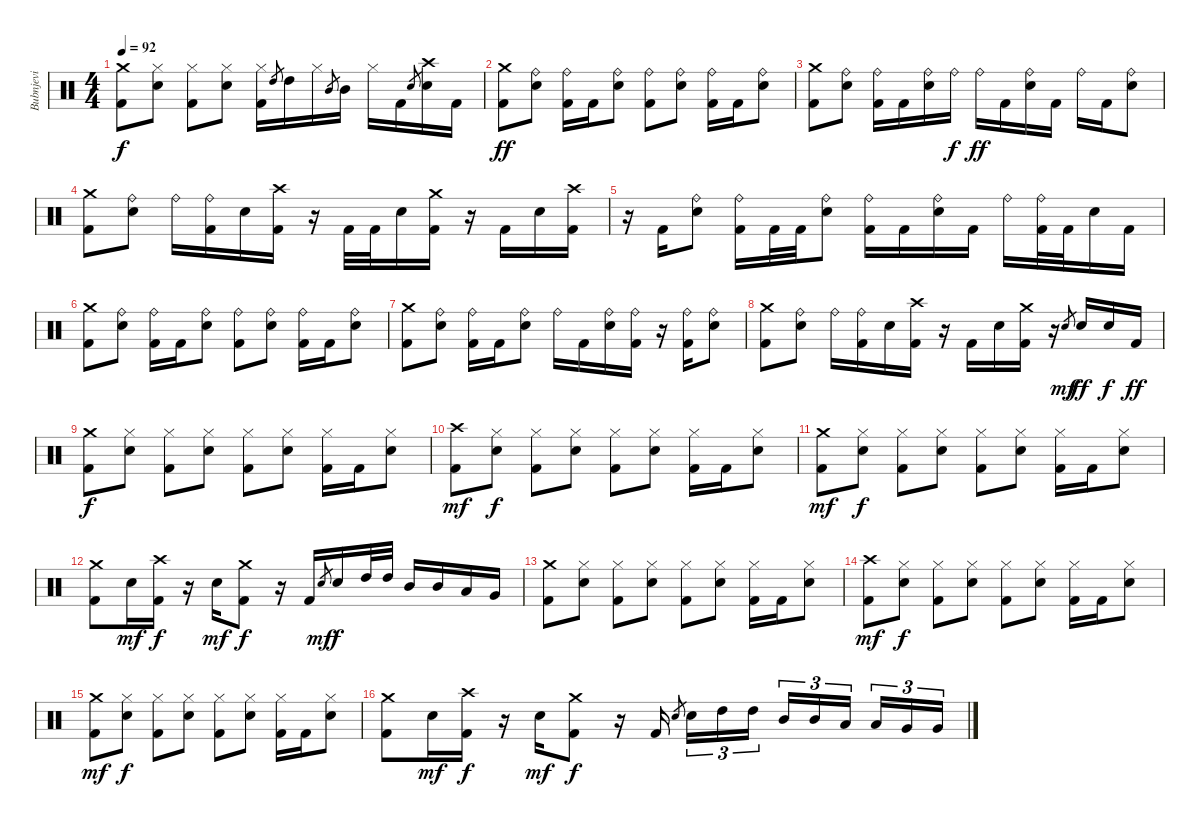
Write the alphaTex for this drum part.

\track ("Bubnjevi" "Bubnjevi") {instrument percussion}
\staff {score}
\articulation defaults
\ts (4 4)
\tempo 92
\clef neutral
\ks c
("Crash medium (hit)" "Kick (hit) 2").8{dy f} ("Hi-Hat (closed)" "Electric Snare (hit)").8 ("Hi-Hat (closed)" "Kick (hit) 2").8 ("Hi-Hat (closed)" "Electric Snare (hit)").8 ("Hi-Hat (closed)" "Kick (hit) 2").16 "High Tom (hit)".8{gr} "High Tom (hit)".16 "Hi-Hat (closed)".16 "Mid Tom (hit)".8{gr} "Mid Tom (hit)".16 "Hi-Hat (closed)".16 "Kick (hit) 2".16 "Electric Snare (hit)".8{gr} ("Crash high (hit)" "Electric Snare (hit)").16 "Kick (hit) 2".16 |
("Crash medium (hit)" "Kick (hit) 2").8{dy ff} ("Ride (bell)" "Electric Snare (hit)").8 ("Ride (bell)" "Kick (hit) 2").16 "Kick (hit) 2".16 ("Ride (bell)" "Electric Snare (hit)").8 ("Ride (bell)" "Kick (hit) 2").8 ("Ride (bell)" "Electric Snare (hit)").8 ("Ride (bell)" "Kick (hit) 2").16 "Kick (hit) 2".16 ("Ride (bell)" "Electric Snare (hit)").8 |
("Crash medium (hit)" "Kick (hit) 2").8 ("Ride (bell)" "Electric Snare (hit)").8 ("Ride (bell)" "Kick (hit) 2").16 "Kick (hit) 2".16 ("Ride (bell)" "Electric Snare (hit)").16 "Ride (bell)".16{dy f} "Ride (bell)".16{dy ff} "Kick (hit) 2".16 ("Ride (bell)" "Electric Snare (hit)").16 "Kick (hit) 2".16 "Ride (bell)".16 "Kick (hit) 2".16 ("Ride (bell)" "Electric Snare (hit)").8 |
("Crash medium (hit)" "Kick (hit) 2").8 ("Ride (bell)" "Electric Snare (hit)").8 "Ride (bell)".16 ("Ride (bell)" "Kick (hit) 2").16 "Electric Snare (hit)".16 ("Crash high (hit)" "Kick (hit) 2").16 r.16 "Kick (hit) 2".32 "Kick (hit) 2".32 "Electric Snare (hit)".16 ("Crash medium (hit)" "Kick (hit) 2").16 r.16 "Kick (hit) 2".16 "Electric Snare (hit)".16 ("Crash high (hit)" "Kick (hit) 2").16 |
r.16 "Kick (hit) 2".16 ("Ride (bell)" "Electric Snare (hit)").8 ("Ride (bell)" "Kick (hit) 2").16 "Kick (hit) 2".32 "Kick (hit) 2".32 ("Ride (bell)" "Electric Snare (hit)").8 ("Ride (bell)" "Kick (hit) 2").16 "Kick (hit) 2".16 ("Ride (bell)" "Electric Snare (hit)").16 "Kick (hit) 2".16 "Ride (bell)".16 ("Ride (bell)" "Kick (hit) 2").32 "Kick (hit) 2".32 "Electric Snare (hit)".16 "Kick (hit) 2".16 |
("Crash medium (hit)" "Kick (hit) 2").8 ("Ride (bell)" "Electric Snare (hit)").8 ("Ride (bell)" "Kick (hit) 2").16 "Kick (hit) 2".16 ("Ride (bell)" "Electric Snare (hit)").8 ("Ride (bell)" "Kick (hit) 2").8 ("Ride (bell)" "Electric Snare (hit)").8 ("Ride (bell)" "Kick (hit) 2").16 "Kick (hit) 2".16 ("Ride (bell)" "Electric Snare (hit)").8 |
("Crash medium (hit)" "Kick (hit) 2").8 ("Ride (bell)" "Electric Snare (hit)").8 ("Ride (bell)" "Kick (hit) 2").16 "Kick (hit) 2".16 ("Ride (bell)" "Electric Snare (hit)").8 "Ride (bell)".16 "Kick (hit) 2".16 ("Ride (bell)" "Electric Snare (hit)").16 ("Ride (bell)" "Kick (hit) 2").16 r.16 ("Ride (bell)" "Kick (hit) 2").16 ("Ride (bell)" "Electric Snare (hit)").8 |
("Crash medium (hit)" "Kick (hit) 2").8 ("Ride (bell)" "Electric Snare (hit)").8 "Ride (bell)".16 ("Ride (bell)" "Kick (hit) 2").16 "Electric Snare (hit)".16 ("Crash high (hit)" "Kick (hit) 2").16 r.16 "Kick (hit) 2".16 "Electric Snare (hit)".16 ("Crash medium (hit)" "Kick (hit) 2").16 r.16 "Electric Snare (hit)".8{gr dy mf} "Electric Snare (hit)".16{dy ff} "Electric Snare (hit)".16{dy f} "Kick (hit) 2".16{dy ff} |
("Crash medium (hit)" "Kick (hit) 2").8{dy f} ("Hi-Hat (closed)" "Electric Snare (hit)").8 ("Hi-Hat (closed)" "Kick (hit) 2").8 ("Hi-Hat (closed)" "Electric Snare (hit)").8 ("Hi-Hat (closed)" "Kick (hit) 2").8 ("Hi-Hat (closed)" "Electric Snare (hit)").8 ("Hi-Hat (closed)" "Kick (hit) 2").16 "Kick (hit) 2".16 ("Hi-Hat (closed)" "Electric Snare (hit)").8 |
("Crash high (hit)" "Kick (hit) 2").8{dy mf} ("Hi-Hat (closed)" "Electric Snare (hit)").8{dy f} ("Hi-Hat (closed)" "Kick (hit) 2").8 ("Hi-Hat (closed)" "Electric Snare (hit)").8 ("Hi-Hat (closed)" "Kick (hit) 2").8 ("Hi-Hat (closed)" "Electric Snare (hit)").8 ("Hi-Hat (closed)" "Kick (hit) 2").16 "Kick (hit) 2".16 ("Hi-Hat (closed)" "Electric Snare (hit)").8 |
("Crash medium (hit)" "Kick (hit) 2").8{dy mf} ("Hi-Hat (closed)" "Electric Snare (hit)").8{dy f} ("Hi-Hat (closed)" "Kick (hit) 2").8 ("Hi-Hat (closed)" "Electric Snare (hit)").8 ("Hi-Hat (closed)" "Kick (hit) 2").8 ("Hi-Hat (closed)" "Electric Snare (hit)").8 ("Hi-Hat (closed)" "Kick (hit) 2").16 "Kick (hit) 2".16 ("Hi-Hat (closed)" "Electric Snare (hit)").8 |
("Crash medium (hit)" "Kick (hit) 2").8 "Electric Snare (hit)".16{dy mf} ("Crash high (hit)" "Kick (hit) 2").16{dy f} r.16 "Electric Snare (hit)".16{dy mf} ("Crash medium (hit)" "Kick (hit) 2").8{dy f} r.16 "Kick (hit) 2".16 "Electric Snare (hit)".8{gr dy mf} "Electric Snare (hit)".16{dy f} "High Tom (hit)".32 "High Tom (hit)".32 "Mid Tom (hit)".16 "Mid Tom (hit)".16 "Low Tom (hit)".16 "Very Low Tom (hit)".16 |
("Crash medium (hit)" "Kick (hit) 2").8 ("Hi-Hat (closed)" "Electric Snare (hit)").8 ("Hi-Hat (closed)" "Kick (hit) 2").8 ("Hi-Hat (closed)" "Electric Snare (hit)").8 ("Hi-Hat (closed)" "Kick (hit) 2").8 ("Hi-Hat (closed)" "Electric Snare (hit)").8 ("Hi-Hat (closed)" "Kick (hit) 2").16 "Kick (hit) 2".16 ("Hi-Hat (closed)" "Electric Snare (hit)").8 |
("Crash high (hit)" "Kick (hit) 2").8{dy mf} ("Hi-Hat (closed)" "Electric Snare (hit)").8{dy f} ("Hi-Hat (closed)" "Kick (hit) 2").8 ("Hi-Hat (closed)" "Electric Snare (hit)").8 ("Hi-Hat (closed)" "Kick (hit) 2").8 ("Hi-Hat (closed)" "Electric Snare (hit)").8 ("Hi-Hat (closed)" "Kick (hit) 2").16 "Kick (hit) 2".16 ("Hi-Hat (closed)" "Electric Snare (hit)").8 |
("Crash medium (hit)" "Kick (hit) 2").8{dy mf} ("Hi-Hat (closed)" "Electric Snare (hit)").8{dy f} ("Hi-Hat (closed)" "Kick (hit) 2").8 ("Hi-Hat (closed)" "Electric Snare (hit)").8 ("Hi-Hat (closed)" "Kick (hit) 2").8 ("Hi-Hat (closed)" "Electric Snare (hit)").8 ("Hi-Hat (closed)" "Kick (hit) 2").16 "Kick (hit) 2".16 ("Hi-Hat (closed)" "Electric Snare (hit)").8 |
("Crash medium (hit)" "Kick (hit) 2").8 "Electric Snare (hit)".16{dy mf} ("Crash high (hit)" "Kick (hit) 2").16{dy f} r.16 "Electric Snare (hit)".16{dy mf} ("Crash medium (hit)" "Kick (hit) 2").8{dy f} r.16 "Kick (hit) 2".16 "Electric Snare (hit)".8{gr} "Electric Snare (hit)".16{tu (3 2)} "High Tom (hit)".16{tu (3 2)} "High Tom (hit)".16{tu (3 2)} "Mid Tom (hit)".16{tu (3 2)} "Mid Tom (hit)".16{tu (3 2)} "Low Tom (hit)".16{tu (3 2)} "Low Tom (hit)".16{tu (3 2)} "Very Low Tom (hit)".16{tu (3 2)} "Very Low Tom (hit)".16{tu (3 2)}
